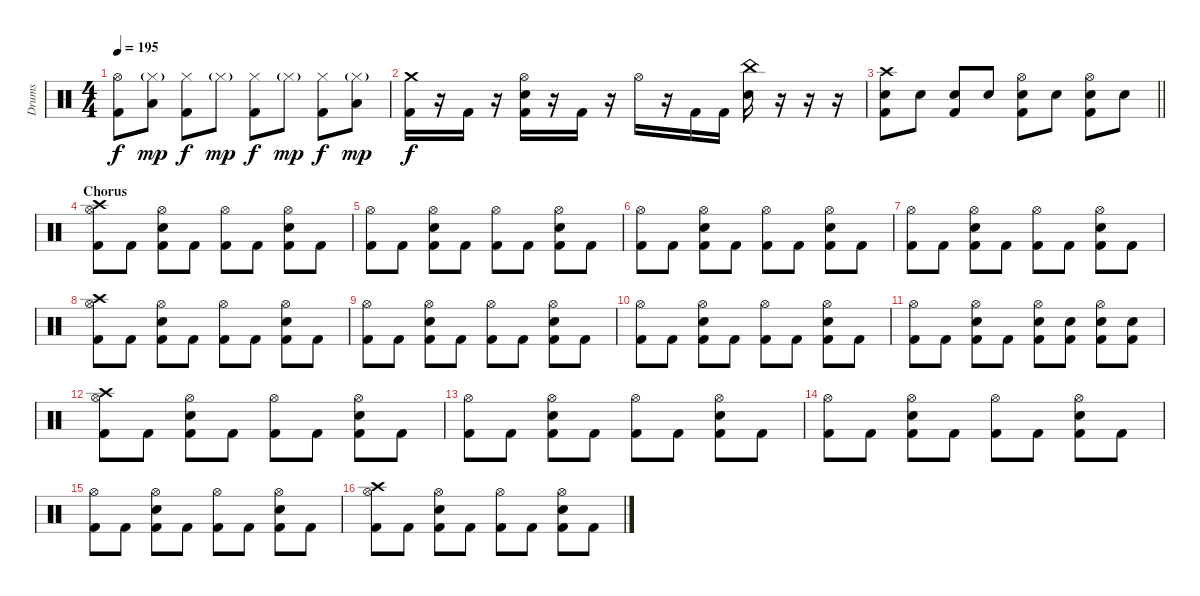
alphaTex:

\track ("Drums" "Drums") {instrument percussion}
\staff {score}
\articulation defaults
\ts (4 4)
\tempo 195
\clef neutral
\ks c
("Hi-Hat (open)" "Kick (hit) 2").8{dy f} ("Hi-Hat (closed)"{g} "Low Tom (hit)").8{dy mp} ("Hi-Hat (closed)" "Kick (hit) 2").8{dy f} "Hi-Hat (closed)"{g}.8{dy mp} ("Hi-Hat (closed)" "Kick (hit) 2").8{dy f} "Hi-Hat (closed)"{g}.8{dy mp} ("Hi-Hat (closed)" "Kick (hit) 2").8{dy f} ("Hi-Hat (closed)"{g} "Low Tom (hit)").8{dy mp} |
("Crash medium (hit)" "Kick (hit) 2").16{dy f} r.16 "Kick (hit) 2".16 r.16 ("Hi-Hat (open)" "Snare (hit) 2" "Kick (hit) 2").16 r.16 "Kick (hit) 2".16 r.16 "Hi-Hat (open)".16 r.16 "Kick (hit) 2".16 "Kick (hit) 2".16 ("China (hit)" "Snare (hit) 2").16 r.16 r.16 r.16 |
\barLineRight lightlight
("Crash high (hit)" "Snare (hit) 2" "Kick (hit) 2").8 "Snare (hit) 2".8 ("Snare (hit) 2" "Kick (hit) 2").8 "Snare (hit) 2".8 ("Hi-Hat (open)" "Snare (hit) 2" "Kick (hit) 2").8 "Snare (hit) 2".8 ("Hi-Hat (open)" "Snare (hit) 2" "Kick (hit) 2").8 "Snare (hit) 2".8 |
\section ("" "Chorus")
("Crash high (hit)" "Hi-Hat (open)" "Kick (hit) 2").8 "Kick (hit) 2".8 ("Hi-Hat (open)" "Snare (hit) 2" "Kick (hit) 2").8 "Kick (hit) 2".8 ("Hi-Hat (open)" "Kick (hit) 2").8 "Kick (hit) 2".8 ("Hi-Hat (open)" "Snare (hit) 2" "Kick (hit) 2").8 "Kick (hit) 2".8 |
("Hi-Hat (open)" "Kick (hit) 2").8 "Kick (hit) 2".8 ("Hi-Hat (open)" "Snare (hit) 2" "Kick (hit) 2").8 "Kick (hit) 2".8 ("Hi-Hat (open)" "Kick (hit) 2").8 "Kick (hit) 2".8 ("Hi-Hat (open)" "Snare (hit) 2" "Kick (hit) 2").8 "Kick (hit) 2".8 |
("Hi-Hat (open)" "Kick (hit) 2").8 "Kick (hit) 2".8 ("Hi-Hat (open)" "Snare (hit) 2" "Kick (hit) 2").8 "Kick (hit) 2".8 ("Hi-Hat (open)" "Kick (hit) 2").8 "Kick (hit) 2".8 ("Hi-Hat (open)" "Snare (hit) 2" "Kick (hit) 2").8 "Kick (hit) 2".8 |
("Hi-Hat (open)" "Kick (hit) 2").8 "Kick (hit) 2".8 ("Hi-Hat (open)" "Snare (hit) 2" "Kick (hit) 2").8 "Kick (hit) 2".8 ("Hi-Hat (open)" "Kick (hit) 2").8 "Kick (hit) 2".8 ("Hi-Hat (open)" "Snare (hit) 2" "Kick (hit) 2").8 "Kick (hit) 2".8 |
("Crash high (hit)" "Hi-Hat (open)" "Kick (hit) 2").8 "Kick (hit) 2".8 ("Hi-Hat (open)" "Snare (hit) 2" "Kick (hit) 2").8 "Kick (hit) 2".8 ("Hi-Hat (open)" "Kick (hit) 2").8 "Kick (hit) 2".8 ("Hi-Hat (open)" "Snare (hit) 2" "Kick (hit) 2").8 "Kick (hit) 2".8 |
("Hi-Hat (open)" "Kick (hit) 2").8 "Kick (hit) 2".8 ("Hi-Hat (open)" "Snare (hit) 2" "Kick (hit) 2").8 "Kick (hit) 2".8 ("Hi-Hat (open)" "Kick (hit) 2").8 "Kick (hit) 2".8 ("Hi-Hat (open)" "Snare (hit) 2" "Kick (hit) 2").8 "Kick (hit) 2".8 |
("Hi-Hat (open)" "Kick (hit) 2").8 "Kick (hit) 2".8 ("Hi-Hat (open)" "Snare (hit) 2" "Kick (hit) 2").8 "Kick (hit) 2".8 ("Hi-Hat (open)" "Kick (hit) 2").8 "Kick (hit) 2".8 ("Hi-Hat (open)" "Snare (hit) 2" "Kick (hit) 2").8 "Kick (hit) 2".8 |
("Hi-Hat (open)" "Kick (hit) 2").8 "Kick (hit) 2".8 ("Hi-Hat (open)" "Snare (hit) 2" "Kick (hit) 2").8 "Kick (hit) 2".8 ("Hi-Hat (open)" "Snare (hit) 2" "Kick (hit) 2").8 ("Snare (hit) 2" "Kick (hit) 2").8 ("Hi-Hat (open)" "Snare (hit) 2" "Kick (hit) 2").8 ("Snare (hit) 2" "Kick (hit) 2").8 |
("Crash high (hit)" "Hi-Hat (open)" "Kick (hit) 2").8 "Kick (hit) 2".8 ("Hi-Hat (open)" "Snare (hit) 2" "Kick (hit) 2").8 "Kick (hit) 2".8 ("Hi-Hat (open)" "Kick (hit) 2").8 "Kick (hit) 2".8 ("Hi-Hat (open)" "Snare (hit) 2" "Kick (hit) 2").8 "Kick (hit) 2".8 |
("Hi-Hat (open)" "Kick (hit) 2").8 "Kick (hit) 2".8 ("Hi-Hat (open)" "Snare (hit) 2" "Kick (hit) 2").8 "Kick (hit) 2".8 ("Hi-Hat (open)" "Kick (hit) 2").8 "Kick (hit) 2".8 ("Hi-Hat (open)" "Snare (hit) 2" "Kick (hit) 2").8 "Kick (hit) 2".8 |
("Hi-Hat (open)" "Kick (hit) 2").8 "Kick (hit) 2".8 ("Hi-Hat (open)" "Snare (hit) 2" "Kick (hit) 2").8 "Kick (hit) 2".8 ("Hi-Hat (open)" "Kick (hit) 2").8 "Kick (hit) 2".8 ("Hi-Hat (open)" "Snare (hit) 2" "Kick (hit) 2").8 "Kick (hit) 2".8 |
("Hi-Hat (open)" "Kick (hit) 2").8 "Kick (hit) 2".8 ("Hi-Hat (open)" "Snare (hit) 2" "Kick (hit) 2").8 "Kick (hit) 2".8 ("Hi-Hat (open)" "Kick (hit) 2").8 "Kick (hit) 2".8 ("Hi-Hat (open)" "Snare (hit) 2" "Kick (hit) 2").8 "Kick (hit) 2".8 |
("Crash high (hit)" "Hi-Hat (open)" "Kick (hit) 2").8 "Kick (hit) 2".8 ("Hi-Hat (open)" "Snare (hit) 2" "Kick (hit) 2").8 "Kick (hit) 2".8 ("Hi-Hat (open)" "Kick (hit) 2").8 "Kick (hit) 2".8 ("Hi-Hat (open)" "Snare (hit) 2" "Kick (hit) 2").8 "Kick (hit) 2".8
